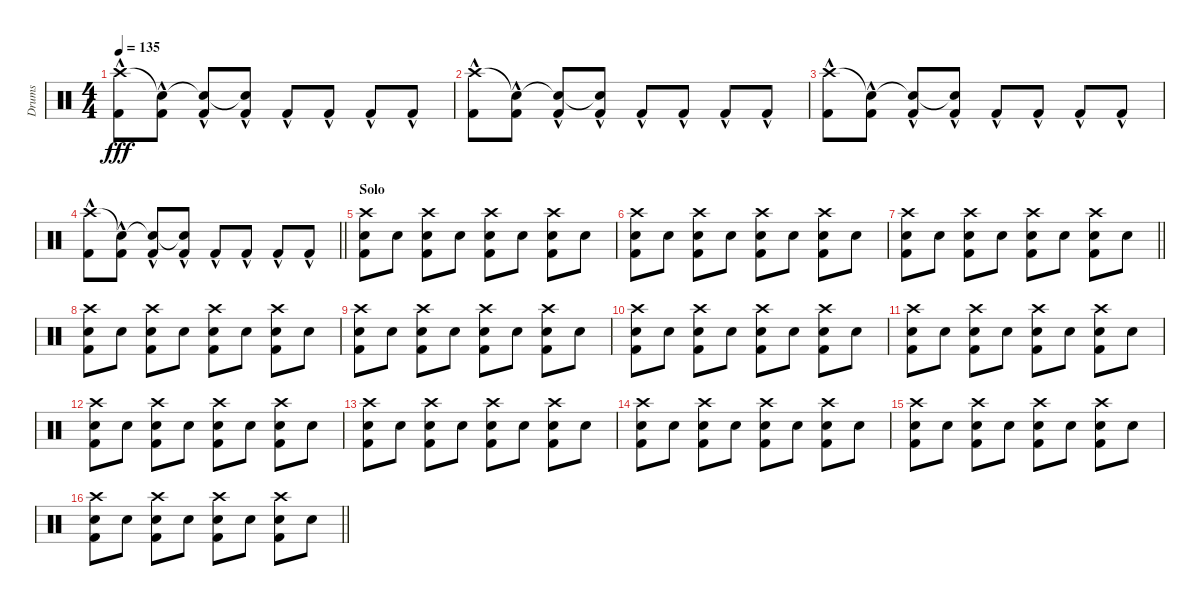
\track ("Drums" "Drums") {instrument percussion}
\staff {score}
\articulation defaults
\ts (4 4)
\tempo 135
\clef neutral
\ks c
("Crash high (hit)"{hac} "Kick (hit) 2"{hac}).8{dy fff} ("Snare (hit)"{t} "Kick (hit) 2"{hac}).8 ("Snare (hit)"{t} "Kick (hit) 2"{hac}).8 ("Snare (hit)"{t} "Kick (hit) 2"{hac}).8 "Kick (hit) 2"{hac}.8 "Kick (hit) 2"{hac}.8 "Kick (hit) 2"{hac}.8 "Kick (hit) 2"{hac}.8 |
("Crash high (hit)"{hac} "Kick (hit) 2"{hac}).8 ("Snare (hit)"{t} "Kick (hit) 2"{hac}).8 ("Snare (hit)"{t} "Kick (hit) 2"{hac}).8 ("Snare (hit)"{t} "Kick (hit) 2"{hac}).8 "Kick (hit) 2"{hac}.8 "Kick (hit) 2"{hac}.8 "Kick (hit) 2"{hac}.8 "Kick (hit) 2"{hac}.8 |
("Crash high (hit)"{hac} "Kick (hit) 2"{hac}).8 ("Snare (hit)"{t} "Kick (hit) 2"{hac}).8 ("Snare (hit)"{t} "Kick (hit) 2"{hac}).8 ("Snare (hit)"{t} "Kick (hit) 2"{hac}).8 "Kick (hit) 2"{hac}.8 "Kick (hit) 2"{hac}.8 "Kick (hit) 2"{hac}.8 "Kick (hit) 2"{hac}.8 |
\barLineRight lightlight
("Crash high (hit)"{hac} "Kick (hit) 2"{hac}).8 ("Snare (hit)"{t} "Kick (hit) 2"{hac}).8 ("Snare (hit)"{t} "Kick (hit) 2"{hac}).8 ("Snare (hit)"{t} "Kick (hit) 2"{hac}).8 "Kick (hit) 2"{hac}.8 "Kick (hit) 2"{hac}.8 "Kick (hit) 2"{hac}.8 "Kick (hit) 2"{hac}.8 |
\section ("" "Solo")
("Crash high (hit)" "Snare (hit) 2" "Kick (hit) 2").8{volume 8} "Snare (hit) 2".8 ("Crash high (hit)" "Snare (hit) 2" "Kick (hit) 2").8 "Snare (hit) 2".8 ("Crash high (hit)" "Snare (hit) 2" "Kick (hit) 2").8 "Snare (hit) 2".8 ("Crash high (hit)" "Snare (hit) 2" "Kick (hit) 2").8 "Snare (hit) 2".8 |
("Crash high (hit)" "Snare (hit) 2" "Kick (hit) 2").8 "Snare (hit) 2".8 ("Crash high (hit)" "Snare (hit) 2" "Kick (hit) 2").8 "Snare (hit) 2".8 ("Crash high (hit)" "Snare (hit) 2" "Kick (hit) 2").8 "Snare (hit) 2".8 ("Crash high (hit)" "Snare (hit) 2" "Kick (hit) 2").8 "Snare (hit) 2".8 |
\barLineRight lightlight
("Crash high (hit)" "Snare (hit) 2" "Kick (hit) 2").8 "Snare (hit) 2".8 ("Crash high (hit)" "Snare (hit) 2" "Kick (hit) 2").8 "Snare (hit) 2".8 ("Crash high (hit)" "Snare (hit) 2" "Kick (hit) 2").8 "Snare (hit) 2".8 ("Crash high (hit)" "Snare (hit) 2" "Kick (hit) 2").8 "Snare (hit) 2".8 |
\section ("" "")
("Crash high (hit)" "Snare (hit) 2" "Kick (hit) 2").8 "Snare (hit) 2".8 ("Crash high (hit)" "Snare (hit) 2" "Kick (hit) 2").8 "Snare (hit) 2".8 ("Crash high (hit)" "Snare (hit) 2" "Kick (hit) 2").8 "Snare (hit) 2".8 ("Crash high (hit)" "Snare (hit) 2" "Kick (hit) 2").8 "Snare (hit) 2".8 |
("Crash high (hit)" "Snare (hit) 2" "Kick (hit) 2").8 "Snare (hit) 2".8 ("Crash high (hit)" "Snare (hit) 2" "Kick (hit) 2").8 "Snare (hit) 2".8 ("Crash high (hit)" "Snare (hit) 2" "Kick (hit) 2").8 "Snare (hit) 2".8 ("Crash high (hit)" "Snare (hit) 2" "Kick (hit) 2").8 "Snare (hit) 2".8 |
("Crash high (hit)" "Snare (hit) 2" "Kick (hit) 2").8 "Snare (hit) 2".8 ("Crash high (hit)" "Snare (hit) 2" "Kick (hit) 2").8 "Snare (hit) 2".8 ("Crash high (hit)" "Snare (hit) 2" "Kick (hit) 2").8 "Snare (hit) 2".8 ("Crash high (hit)" "Snare (hit) 2" "Kick (hit) 2").8 "Snare (hit) 2".8 |
("Crash high (hit)" "Snare (hit) 2" "Kick (hit) 2").8 "Snare (hit) 2".8 ("Crash high (hit)" "Snare (hit) 2" "Kick (hit) 2").8 "Snare (hit) 2".8 ("Crash high (hit)" "Snare (hit) 2" "Kick (hit) 2").8 "Snare (hit) 2".8 ("Crash high (hit)" "Snare (hit) 2" "Kick (hit) 2").8 "Snare (hit) 2".8 |
("Crash high (hit)" "Snare (hit) 2" "Kick (hit) 2").8 "Snare (hit) 2".8 ("Crash high (hit)" "Snare (hit) 2" "Kick (hit) 2").8 "Snare (hit) 2".8 ("Crash high (hit)" "Snare (hit) 2" "Kick (hit) 2").8 "Snare (hit) 2".8 ("Crash high (hit)" "Snare (hit) 2" "Kick (hit) 2").8 "Snare (hit) 2".8 |
("Crash high (hit)" "Snare (hit) 2" "Kick (hit) 2").8 "Snare (hit) 2".8 ("Crash high (hit)" "Snare (hit) 2" "Kick (hit) 2").8 "Snare (hit) 2".8 ("Crash high (hit)" "Snare (hit) 2" "Kick (hit) 2").8 "Snare (hit) 2".8 ("Crash high (hit)" "Snare (hit) 2" "Kick (hit) 2").8 "Snare (hit) 2".8 |
("Crash high (hit)" "Snare (hit) 2" "Kick (hit) 2").8 "Snare (hit) 2".8 ("Crash high (hit)" "Snare (hit) 2" "Kick (hit) 2").8 "Snare (hit) 2".8 ("Crash high (hit)" "Snare (hit) 2" "Kick (hit) 2").8 "Snare (hit) 2".8 ("Crash high (hit)" "Snare (hit) 2" "Kick (hit) 2").8 "Snare (hit) 2".8 |
("Crash high (hit)" "Snare (hit) 2" "Kick (hit) 2").8 "Snare (hit) 2".8 ("Crash high (hit)" "Snare (hit) 2" "Kick (hit) 2").8 "Snare (hit) 2".8 ("Crash high (hit)" "Snare (hit) 2" "Kick (hit) 2").8 "Snare (hit) 2".8 ("Crash high (hit)" "Snare (hit) 2" "Kick (hit) 2").8 "Snare (hit) 2".8 |
\barLineRight lightlight
("Crash high (hit)" "Snare (hit) 2" "Kick (hit) 2").8 "Snare (hit) 2".8 ("Crash high (hit)" "Snare (hit) 2" "Kick (hit) 2").8 "Snare (hit) 2".8 ("Crash high (hit)" "Snare (hit) 2" "Kick (hit) 2").8 "Snare (hit) 2".8 ("Crash high (hit)" "Snare (hit) 2" "Kick (hit) 2").8 "Snare (hit) 2".8
